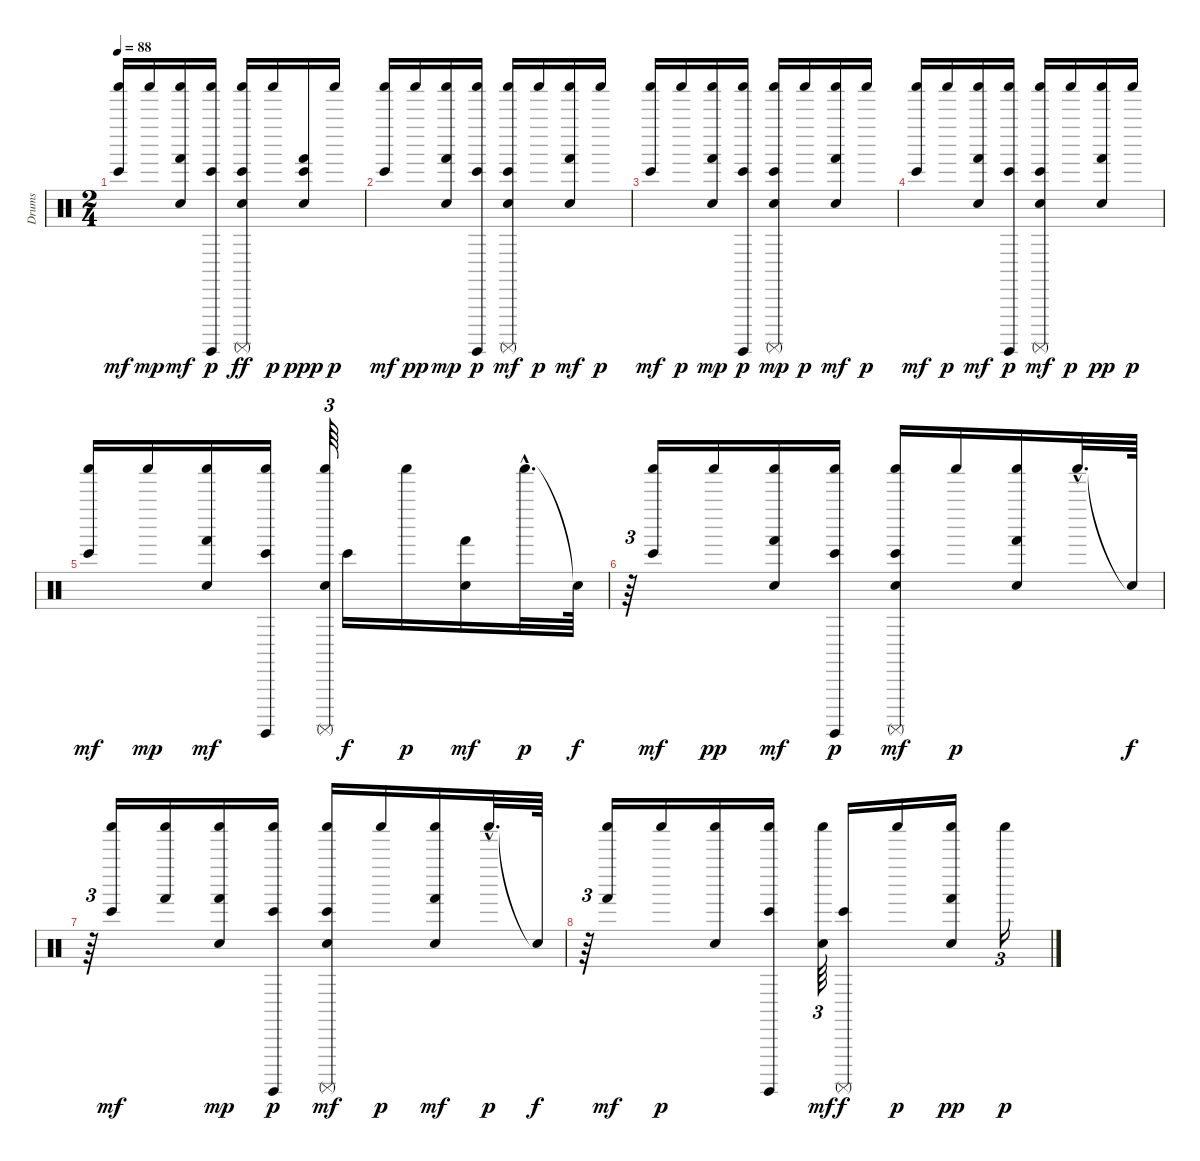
\track ("Drums" "Drums") {instrument percussion}
\staff {score}
\articulation defaults
\ts (2 4)
\tempo 88
\clef neutral
\ks c
("Bongo High (hit)" "Shaker (hit)").16{dy mf} "Shaker (hit)".16{dy mp} ("Hand Clap (hit)" "Shaker (hit)" "Hand (hit)").16{dy mf} ("Shaker (hit)" "Bongo High (hit)" "Surdo (hit)").16{dy p} ("Shaker (hit)" "Hand Clap (hit)" "Bongo High (hit)" "Surdo (mute)").16{dy ff} "Shaker (hit)".16{dy p} ("Hand (hit)" "Hand Clap (hit)" "Bongo High (hit)").16{dy ppp} "Shaker (hit)".16{dy p} |
("Shaker (hit)" "Bongo High (hit)").16{dy mf} "Shaker (hit)".16{dy pp} ("Shaker (hit)" "Hand Clap (hit)" "Hand (hit)").16{dy mp} ("Surdo (hit)" "Bongo High (hit)" "Shaker (hit)").16{dy p} ("Hand Clap (hit)" "Shaker (hit)" "Surdo (mute)" "Bongo High (hit)").16{dy mf} "Shaker (hit)".16{dy p} ("Hand Clap (hit)" "Shaker (hit)" "Hand (hit)").16{dy mf} "Shaker (hit)".16{dy p} |
("Shaker (hit)" "Bongo High (hit)").16{dy mf} "Shaker (hit)".16{dy p} ("Shaker (hit)" "Hand Clap (hit)" "Hand (hit)").16{dy mp} ("Shaker (hit)" "Bongo High (hit)" "Surdo (hit)").16{dy p} ("Shaker (hit)" "Hand Clap (hit)" "Surdo (mute)" "Bongo High (hit)").16{dy mp} "Shaker (hit)".16{dy p} ("Shaker (hit)" "Hand (hit)" "Hand Clap (hit)").16{dy mf} "Shaker (hit)".16{dy p} |
("Bongo High (hit)" "Shaker (hit)").16{dy mf} "Shaker (hit)".16{dy p} ("Shaker (hit)" "Hand Clap (hit)" "Hand (hit)").16{dy mf} ("Bongo High (hit)" "Shaker (hit)" "Surdo (hit)").16{dy p} ("Hand Clap (hit)" "Shaker (hit)" "Bongo High (hit)" "Surdo (mute)").16{dy mf} "Shaker (hit)".16{dy p} ("Hand Clap (hit)" "Hand (hit)" "Shaker (hit)").16{dy pp} "Shaker (hit)".16{dy p} |
("Bongo High (hit)" "Shaker (hit)").16{dy mf} "Shaker (hit)".16{dy mp} ("Hand Clap (hit)" "Shaker (hit)" "Hand (hit)").16{dy mf} ("Surdo (hit)" "Shaker (hit)" "Bongo High (hit)").16 ("Hand Clap (hit)" "Shaker (hit)" "Surdo (mute)").64{tu (3 2)} "Bongo High (hit)".16{dy f} "Shaker (hit)".16{dy p} ("Hand Clap (hit)" "Hand (hit)").16{dy mf} "Shaker (hit)"{hac}.32{d dy p} "Snare (hit)"{t}.64{dy f} |
r.64{tu (3 2)} ("Shaker (hit)" "Bongo High (hit)").16{dy mf} "Shaker (hit)".16{dy pp} ("Hand Clap (hit)" "Shaker (hit)" "Hand (hit)").16{dy mf} ("Surdo (hit)" "Shaker (hit)" "Bongo High (hit)").16{dy p} ("Surdo (mute)" "Hand Clap (hit)" "Shaker (hit)" "Bongo High (hit)").16{dy mf} "Shaker (hit)".16{dy p} ("Hand Clap (hit)" "Shaker (hit)" "Hand (hit)").16 "Shaker (hit)"{hac}.32{d} "Snare (hit)"{t}.64{dy f} |
r.64{tu (3 2)} ("Shaker (hit)" "Bongo High (hit)").16{dy mf} ("Shaker (hit)" "Hand (hit)").16 ("Hand Clap (hit)" "Shaker (hit)" "Hand (hit)").16{dy mp} ("Shaker (hit)" "Bongo High (hit)" "Surdo (hit)").16{dy p} ("Hand Clap (hit)" "Shaker (hit)" "Bongo High (hit)" "Surdo (mute)").16{dy mf} "Shaker (hit)".16{dy p} ("Shaker (hit)" "Hand (hit)" "Hand Clap (hit)").16{dy mf} "Shaker (hit)"{hac}.32{d dy p} "Snare (hit)"{t}.64{dy f} |
r.64{tu (3 2)} ("Shaker (hit)" "Hand (hit)").16{dy mf} "Shaker (hit)".16{dy p} ("Hand Clap (hit)" "Shaker (hit)").16 ("Shaker (hit)" "Bongo High (hit)" "Surdo (hit)").16 ("Hand Clap (hit)" "Shaker (hit)").64{tu (3 2) dy mf} ("Bongo High (hit)" "Surdo (mute)").16{dy f} "Shaker (hit)".16{dy p} ("Hand Clap (hit)" "Shaker (hit)" "Hand (hit)").16{dy pp} "Shaker (hit)".16{tu (3 2) dy p}
